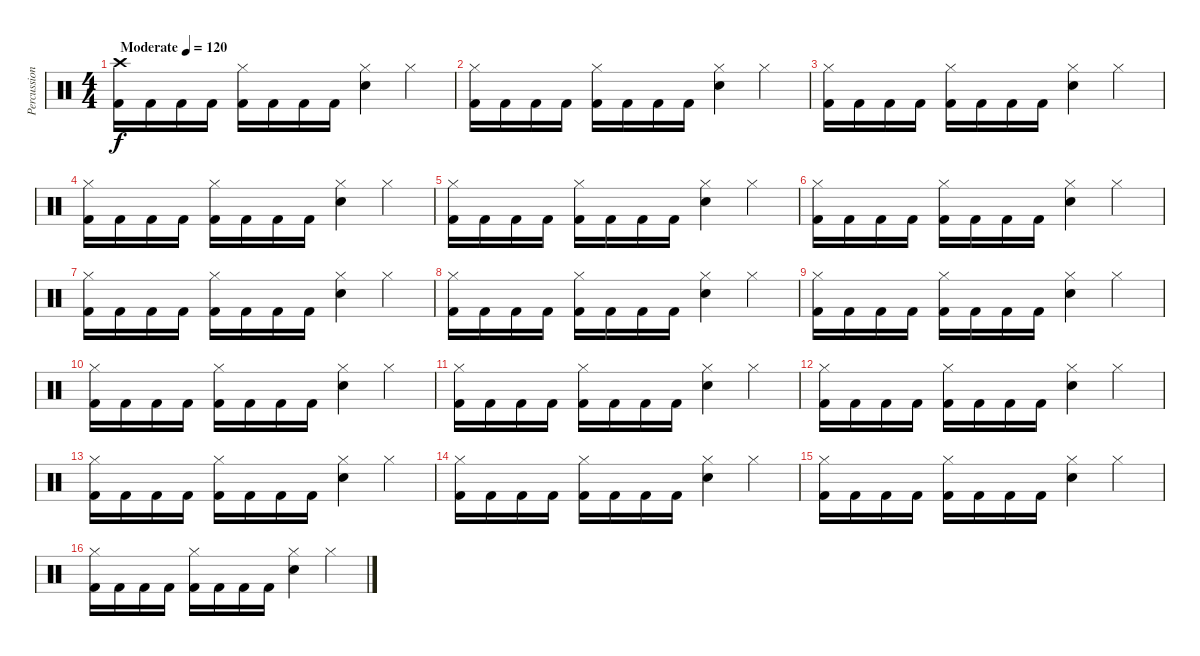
\track ("Percussion" "Percussion") {instrument percussion}
\staff {score}
\articulation defaults
\ts (4 4)
\tempo (120 "Moderate")
\clef neutral
\ks c
("Crash high (hit)" "Kick (hit) 2").16{dy f} "Kick (hit) 2".16 "Kick (hit) 2".16 "Kick (hit) 2".16 ("Hi-Hat (closed)" "Kick (hit) 2").16 "Kick (hit) 2".16 "Kick (hit) 2".16 "Kick (hit) 2".16 ("Hi-Hat (closed)" "Snare (hit) 2").4 "Hi-Hat (closed)".4 |
("Hi-Hat (closed)" "Kick (hit) 2").16 "Kick (hit) 2".16 "Kick (hit) 2".16 "Kick (hit) 2".16 ("Hi-Hat (closed)" "Kick (hit) 2").16 "Kick (hit) 2".16 "Kick (hit) 2".16 "Kick (hit) 2".16 ("Hi-Hat (closed)" "Snare (hit) 2").4 "Hi-Hat (closed)".4 |
("Hi-Hat (closed)" "Kick (hit) 2").16 "Kick (hit) 2".16 "Kick (hit) 2".16 "Kick (hit) 2".16 ("Hi-Hat (closed)" "Kick (hit) 2").16 "Kick (hit) 2".16 "Kick (hit) 2".16 "Kick (hit) 2".16 ("Hi-Hat (closed)" "Snare (hit) 2").4 "Hi-Hat (closed)".4 |
("Hi-Hat (closed)" "Kick (hit) 2").16 "Kick (hit) 2".16 "Kick (hit) 2".16 "Kick (hit) 2".16 ("Hi-Hat (closed)" "Kick (hit) 2").16 "Kick (hit) 2".16 "Kick (hit) 2".16 "Kick (hit) 2".16 ("Hi-Hat (closed)" "Snare (hit) 2").4 "Hi-Hat (closed)".4 |
("Hi-Hat (closed)" "Kick (hit) 2").16 "Kick (hit) 2".16 "Kick (hit) 2".16 "Kick (hit) 2".16 ("Hi-Hat (closed)" "Kick (hit) 2").16 "Kick (hit) 2".16 "Kick (hit) 2".16 "Kick (hit) 2".16 ("Hi-Hat (closed)" "Snare (hit) 2").4 "Hi-Hat (closed)".4 |
("Hi-Hat (closed)" "Kick (hit) 2").16 "Kick (hit) 2".16 "Kick (hit) 2".16 "Kick (hit) 2".16 ("Hi-Hat (closed)" "Kick (hit) 2").16 "Kick (hit) 2".16 "Kick (hit) 2".16 "Kick (hit) 2".16 ("Hi-Hat (closed)" "Snare (hit) 2").4 "Hi-Hat (closed)".4 |
("Hi-Hat (closed)" "Kick (hit) 2").16 "Kick (hit) 2".16 "Kick (hit) 2".16 "Kick (hit) 2".16 ("Hi-Hat (closed)" "Kick (hit) 2").16 "Kick (hit) 2".16 "Kick (hit) 2".16 "Kick (hit) 2".16 ("Hi-Hat (closed)" "Snare (hit) 2").4 "Hi-Hat (closed)".4 |
("Hi-Hat (closed)" "Kick (hit) 2").16 "Kick (hit) 2".16 "Kick (hit) 2".16 "Kick (hit) 2".16 ("Hi-Hat (closed)" "Kick (hit) 2").16 "Kick (hit) 2".16 "Kick (hit) 2".16 "Kick (hit) 2".16 ("Hi-Hat (closed)" "Snare (hit) 2").4 "Hi-Hat (closed)".4 |
("Hi-Hat (closed)" "Kick (hit) 2").16 "Kick (hit) 2".16 "Kick (hit) 2".16 "Kick (hit) 2".16 ("Hi-Hat (closed)" "Kick (hit) 2").16 "Kick (hit) 2".16 "Kick (hit) 2".16 "Kick (hit) 2".16 ("Hi-Hat (closed)" "Snare (hit) 2").4 "Hi-Hat (closed)".4 |
("Hi-Hat (closed)" "Kick (hit) 2").16 "Kick (hit) 2".16 "Kick (hit) 2".16 "Kick (hit) 2".16 ("Hi-Hat (closed)" "Kick (hit) 2").16 "Kick (hit) 2".16 "Kick (hit) 2".16 "Kick (hit) 2".16 ("Hi-Hat (closed)" "Snare (hit) 2").4 "Hi-Hat (closed)".4 |
("Hi-Hat (closed)" "Kick (hit) 2").16 "Kick (hit) 2".16 "Kick (hit) 2".16 "Kick (hit) 2".16 ("Hi-Hat (closed)" "Kick (hit) 2").16 "Kick (hit) 2".16 "Kick (hit) 2".16 "Kick (hit) 2".16 ("Hi-Hat (closed)" "Snare (hit) 2").4 "Hi-Hat (closed)".4 |
("Hi-Hat (closed)" "Kick (hit) 2").16 "Kick (hit) 2".16 "Kick (hit) 2".16 "Kick (hit) 2".16 ("Hi-Hat (closed)" "Kick (hit) 2").16 "Kick (hit) 2".16 "Kick (hit) 2".16 "Kick (hit) 2".16 ("Hi-Hat (closed)" "Snare (hit) 2").4 "Hi-Hat (closed)".4 |
("Hi-Hat (closed)" "Kick (hit) 2").16 "Kick (hit) 2".16 "Kick (hit) 2".16 "Kick (hit) 2".16 ("Hi-Hat (closed)" "Kick (hit) 2").16 "Kick (hit) 2".16 "Kick (hit) 2".16 "Kick (hit) 2".16 ("Hi-Hat (closed)" "Snare (hit) 2").4 "Hi-Hat (closed)".4 |
("Hi-Hat (closed)" "Kick (hit) 2").16 "Kick (hit) 2".16 "Kick (hit) 2".16 "Kick (hit) 2".16 ("Hi-Hat (closed)" "Kick (hit) 2").16 "Kick (hit) 2".16 "Kick (hit) 2".16 "Kick (hit) 2".16 ("Hi-Hat (closed)" "Snare (hit) 2").4 "Hi-Hat (closed)".4 |
("Hi-Hat (closed)" "Kick (hit) 2").16 "Kick (hit) 2".16 "Kick (hit) 2".16 "Kick (hit) 2".16 ("Hi-Hat (closed)" "Kick (hit) 2").16 "Kick (hit) 2".16 "Kick (hit) 2".16 "Kick (hit) 2".16 ("Hi-Hat (closed)" "Snare (hit) 2").4 "Hi-Hat (closed)".4 |
("Hi-Hat (closed)" "Kick (hit) 2").16 "Kick (hit) 2".16 "Kick (hit) 2".16 "Kick (hit) 2".16 ("Hi-Hat (closed)" "Kick (hit) 2").16 "Kick (hit) 2".16 "Kick (hit) 2".16 "Kick (hit) 2".16 ("Hi-Hat (closed)" "Snare (hit) 2").4 "Hi-Hat (closed)".4
